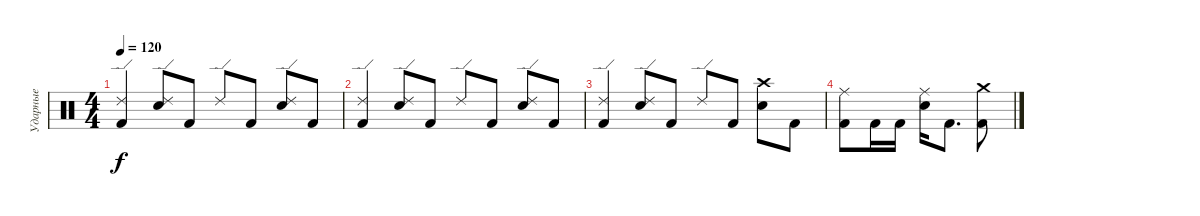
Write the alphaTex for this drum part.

\track ("Ударные" "Ударные") {instrument percussion}
\staff {score}
\articulation defaults
\ts (4 4)
\tempo 120
\clef neutral
\ks c
("Kick (hit) 2" "Ride (edge) 2").4{dy f} ("Electric Snare (hit)" "Ride (edge) 2").8 "Kick (hit) 2".8 "Ride (edge) 2".8 "Kick (hit) 2".8 ("Electric Snare (hit)" "Ride (edge) 2").8 "Kick (hit) 2".8 |
("Kick (hit) 2" "Ride (edge) 2").4 ("Electric Snare (hit)" "Ride (edge) 2").8 "Kick (hit) 2".8 "Ride (edge) 2".8 "Kick (hit) 2".8 ("Electric Snare (hit)" "Ride (edge) 2").8 "Kick (hit) 2".8 |
("Kick (hit) 2" "Ride (edge) 2").4 ("Electric Snare (hit)" "Ride (edge) 2").8 "Kick (hit) 2".8 "Ride (edge) 2".8 "Kick (hit) 2".8 ("Electric Snare (hit)" "Crash high (hit)").8 "Kick (hit) 2".8 |
("Kick (hit) 2" "Ride (middle)").8 "Kick (hit) 2".16 "Kick (hit) 2".16 ("Electric Snare (hit)" "Ride (middle)").16 "Kick (hit) 2".8{d} ("Kick (hit) 2" "Crash medium (hit)").8
